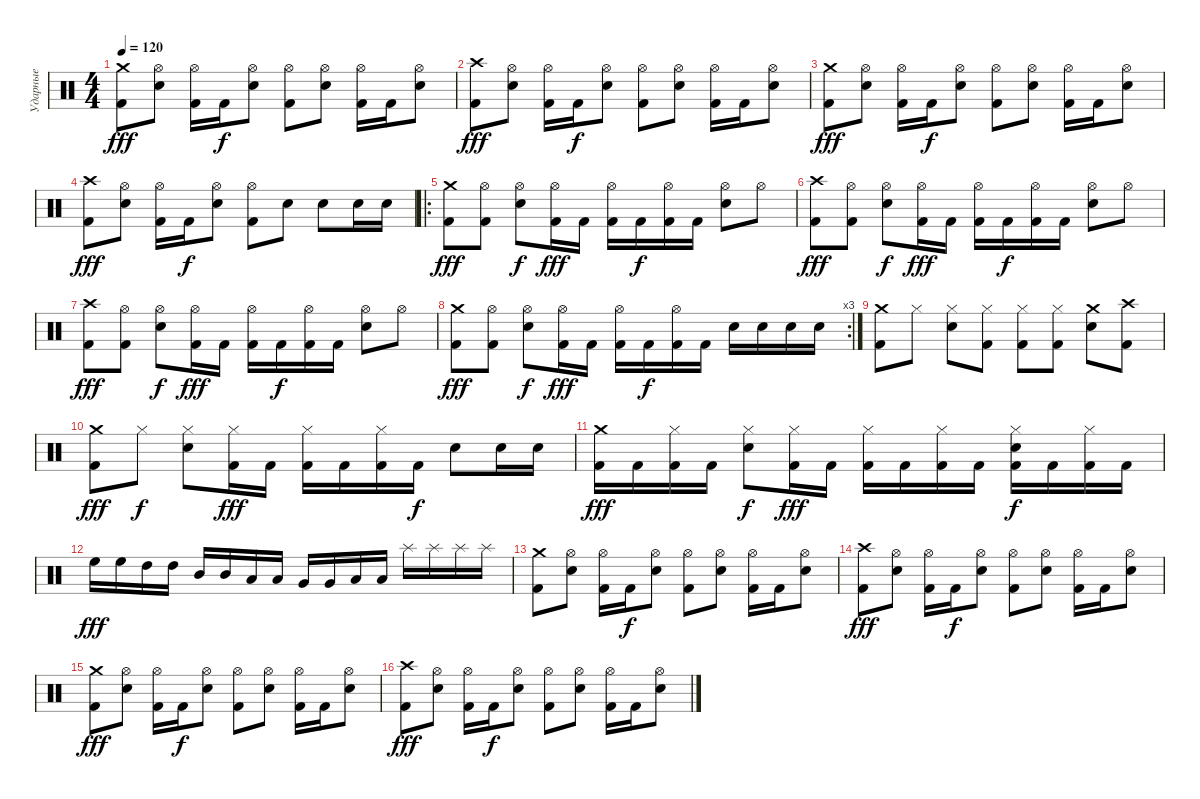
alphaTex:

\track ("Ударные" "Ударные") {instrument percussion}
\staff {score}
\articulation defaults
\ts (4 4)
\tempo 120
\clef neutral
\ks c
("Crash medium (hit)" "Kick (hit) 2").8{dy fff} ("Hi-Hat (open)" "Electric Snare (hit)").8 ("Hi-Hat (open)" "Kick (hit) 2").16 "Kick (hit) 2".16{dy f} ("Hi-Hat (open)" "Electric Snare (hit)").8 ("Hi-Hat (open)" "Kick (hit) 2").8 ("Hi-Hat (open)" "Electric Snare (hit)").8 ("Hi-Hat (open)" "Kick (hit) 2").16 "Kick (hit) 2".16 ("Hi-Hat (open)" "Electric Snare (hit)").8 |
("Crash high (hit)" "Kick (hit) 2").8{dy fff} ("Hi-Hat (open)" "Electric Snare (hit)").8 ("Hi-Hat (open)" "Kick (hit) 2").16 "Kick (hit) 2".16{dy f} ("Hi-Hat (open)" "Electric Snare (hit)").8 ("Hi-Hat (open)" "Kick (hit) 2").8 ("Hi-Hat (open)" "Electric Snare (hit)").8 ("Hi-Hat (open)" "Kick (hit) 2").16 "Kick (hit) 2".16 ("Hi-Hat (open)" "Electric Snare (hit)").8 |
("Crash medium (hit)" "Kick (hit) 2").8{dy fff} ("Hi-Hat (open)" "Electric Snare (hit)").8 ("Hi-Hat (open)" "Kick (hit) 2").16 "Kick (hit) 2".16{dy f} ("Hi-Hat (open)" "Electric Snare (hit)").8 ("Hi-Hat (open)" "Kick (hit) 2").8 ("Hi-Hat (open)" "Electric Snare (hit)").8 ("Hi-Hat (open)" "Kick (hit) 2").16 "Kick (hit) 2".16 ("Hi-Hat (open)" "Electric Snare (hit)").8 |
("Crash high (hit)" "Kick (hit) 2").8{dy fff} ("Hi-Hat (open)" "Electric Snare (hit)").8 ("Hi-Hat (open)" "Kick (hit) 2").16 "Kick (hit) 2".16{dy f} ("Hi-Hat (open)" "Electric Snare (hit)").8 ("Hi-Hat (open)" "Kick (hit) 2").8 "Electric Snare (hit)".8 "Electric Snare (hit)".8 "Electric Snare (hit)".16 "Electric Snare (hit)".16 |
\ro
("Kick (hit) 2" "Crash medium (hit)").8{dy fff} ("Kick (hit) 2" "Hi-Hat (open)").8 ("Electric Snare (hit)" "Hi-Hat (open)").8{dy f} ("Kick (hit) 2" "Hi-Hat (open)").16{dy fff} "Kick (hit) 2".16 ("Kick (hit) 2" "Hi-Hat (open)").16 "Kick (hit) 2".16{dy f} ("Kick (hit) 2" "Hi-Hat (open)").16 "Kick (hit) 2".16 ("Electric Snare (hit)" "Hi-Hat (open)").8 "Hi-Hat (open)".8 |
("Kick (hit) 2" "Crash high (hit)").8{dy fff} ("Kick (hit) 2" "Hi-Hat (open)").8 ("Electric Snare (hit)" "Hi-Hat (open)").8{dy f} ("Kick (hit) 2" "Hi-Hat (open)").16{dy fff} "Kick (hit) 2".16 ("Kick (hit) 2" "Hi-Hat (open)").16 "Kick (hit) 2".16{dy f} ("Kick (hit) 2" "Hi-Hat (open)").16 "Kick (hit) 2".16 ("Electric Snare (hit)" "Hi-Hat (open)").8 "Hi-Hat (open)".8 |
("Kick (hit) 2" "Crash high (hit)").8{dy fff} ("Kick (hit) 2" "Hi-Hat (open)").8 ("Electric Snare (hit)" "Hi-Hat (open)").8{dy f} ("Kick (hit) 2" "Hi-Hat (open)").16{dy fff} "Kick (hit) 2".16 ("Kick (hit) 2" "Hi-Hat (open)").16 "Kick (hit) 2".16{dy f} ("Kick (hit) 2" "Hi-Hat (open)").16 "Kick (hit) 2".16 ("Electric Snare (hit)" "Hi-Hat (open)").8 "Hi-Hat (open)".8 |
\rc 3
("Kick (hit) 2" "Crash medium (hit)").8{dy fff} ("Kick (hit) 2" "Hi-Hat (open)").8 ("Electric Snare (hit)" "Hi-Hat (open)").8{dy f} ("Kick (hit) 2" "Hi-Hat (open)").16{dy fff} "Kick (hit) 2".16 ("Kick (hit) 2" "Hi-Hat (open)").16 "Kick (hit) 2".16{dy f} ("Kick (hit) 2" "Hi-Hat (open)").16 "Kick (hit) 2".16 "Electric Snare (hit)".16 "Electric Snare (hit)".16 "Electric Snare (hit)".16 "Electric Snare (hit)".16 |
("Kick (hit) 2" "Crash medium (hit)").8 "Hi-Hat (closed)".8 ("Electric Snare (hit)" "Hi-Hat (closed)").8 ("Kick (hit) 2" "Hi-Hat (closed)").8 ("Kick (hit) 2" "Hi-Hat (closed)").8 ("Kick (hit) 2" "Hi-Hat (closed)").8 ("Electric Snare (hit)" "Crash medium (hit)").8 ("Kick (hit) 2" "Crash high (hit)").8 |
("Kick (hit) 2" "Crash medium (hit)").8{dy fff} "Hi-Hat (closed)".8{dy f} ("Electric Snare (hit)" "Hi-Hat (closed)").8 ("Kick (hit) 2" "Hi-Hat (closed)").16{dy fff} "Kick (hit) 2".16 ("Kick (hit) 2" "Hi-Hat (closed)").16 "Kick (hit) 2".16 ("Kick (hit) 2" "Hi-Hat (closed)").16 "Kick (hit) 2".16{dy f} "Electric Snare (hit)".8 "Electric Snare (hit)".16 "Electric Snare (hit)".16 |
("Kick (hit) 2" "Crash medium (hit)").16{dy fff} "Kick (hit) 2".16 ("Kick (hit) 2" "Hi-Hat (closed)").16 "Kick (hit) 2".16 ("Electric Snare (hit)" "Hi-Hat (closed)").8{dy f} ("Kick (hit) 2" "Hi-Hat (closed)").16{dy fff} "Kick (hit) 2".16 ("Kick (hit) 2" "Hi-Hat (closed)").16 "Kick (hit) 2".16 ("Kick (hit) 2" "Hi-Hat (closed)").16 "Kick (hit) 2".16 ("Kick (hit) 2" "Electric Snare (hit)" "Hi-Hat (closed)").16{dy f} "Kick (hit) 2".16 ("Kick (hit) 2" "Hi-Hat (closed)").16 "Kick (hit) 2".16 |
"High Floor Tom (hit)".16{dy fff} "High Floor Tom (hit)".16 "High Tom (hit)".16 "High Tom (hit)".16 "Mid Tom (hit)".16 "Mid Tom (hit)".16 "Low Tom (hit)".16 "Low Tom (hit)".16 "Very Low Tom (hit)".16 "Very Low Tom (hit)".16 "Low Floor Tom (hit)".16 "Low Floor Tom (hit)".16 "Splash (hit)".16 "Splash (hit)".16 "Splash (hit)".16 "Splash (hit)".16 |
("Crash medium (hit)" "Kick (hit) 2").8 ("Hi-Hat (open)" "Electric Snare (hit)").8 ("Hi-Hat (open)" "Kick (hit) 2").16 "Kick (hit) 2".16{dy f} ("Hi-Hat (open)" "Electric Snare (hit)").8 ("Hi-Hat (open)" "Kick (hit) 2").8 ("Hi-Hat (open)" "Electric Snare (hit)").8 ("Hi-Hat (open)" "Kick (hit) 2").16 "Kick (hit) 2".16 ("Hi-Hat (open)" "Electric Snare (hit)").8 |
("Crash high (hit)" "Kick (hit) 2").8{dy fff} ("Hi-Hat (open)" "Electric Snare (hit)").8 ("Hi-Hat (open)" "Kick (hit) 2").16 "Kick (hit) 2".16{dy f} ("Hi-Hat (open)" "Electric Snare (hit)").8 ("Hi-Hat (open)" "Kick (hit) 2").8 ("Hi-Hat (open)" "Electric Snare (hit)").8 ("Hi-Hat (open)" "Kick (hit) 2").16 "Kick (hit) 2".16 ("Hi-Hat (open)" "Electric Snare (hit)").8 |
("Crash medium (hit)" "Kick (hit) 2").8{dy fff} ("Hi-Hat (open)" "Electric Snare (hit)").8 ("Hi-Hat (open)" "Kick (hit) 2").16 "Kick (hit) 2".16{dy f} ("Hi-Hat (open)" "Electric Snare (hit)").8 ("Hi-Hat (open)" "Kick (hit) 2").8 ("Hi-Hat (open)" "Electric Snare (hit)").8 ("Hi-Hat (open)" "Kick (hit) 2").16 "Kick (hit) 2".16 ("Hi-Hat (open)" "Electric Snare (hit)").8 |
("Crash high (hit)" "Kick (hit) 2").8{dy fff} ("Hi-Hat (open)" "Electric Snare (hit)").8 ("Hi-Hat (open)" "Kick (hit) 2").16 "Kick (hit) 2".16{dy f} ("Hi-Hat (open)" "Electric Snare (hit)").8 ("Hi-Hat (open)" "Kick (hit) 2").8 ("Hi-Hat (open)" "Electric Snare (hit)").8 ("Hi-Hat (open)" "Kick (hit) 2").16 "Kick (hit) 2".16 ("Hi-Hat (open)" "Electric Snare (hit)").8
